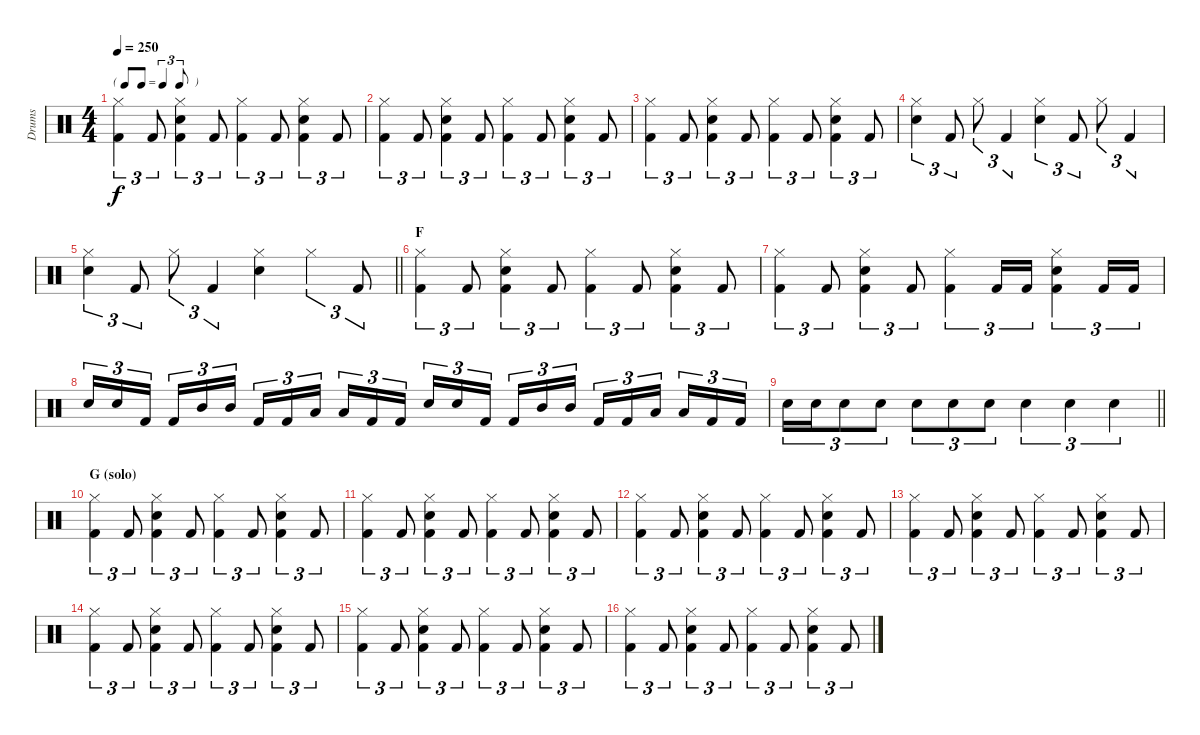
\track ("Drums" "Drums") {instrument percussion}
\staff {score}
\articulation defaults
\ts (4 4)
\tf triplet8th
\tempo 250
\clef neutral
\ks aminor
("Hi-Hat (closed)" "Kick (hit) 2").4{tu (3 2) dy f} "Kick (hit) 2".8{tu (3 2)} ("Hi-Hat (closed)" "Electric Snare (hit)" "Kick (hit) 2").4{tu (3 2)} "Kick (hit) 2".8{tu (3 2)} ("Hi-Hat (closed)" "Kick (hit) 2").4{tu (3 2)} "Kick (hit) 2".8{tu (3 2)} ("Hi-Hat (closed)" "Electric Snare (hit)" "Kick (hit) 2").4{tu (3 2)} "Kick (hit) 2".8{tu (3 2)} |
("Hi-Hat (closed)" "Kick (hit) 2").4{tu (3 2)} "Kick (hit) 2".8{tu (3 2)} ("Hi-Hat (closed)" "Electric Snare (hit)" "Kick (hit) 2").4{tu (3 2)} "Kick (hit) 2".8{tu (3 2)} ("Hi-Hat (closed)" "Kick (hit) 2").4{tu (3 2)} "Kick (hit) 2".8{tu (3 2)} ("Hi-Hat (closed)" "Electric Snare (hit)" "Kick (hit) 2").4{tu (3 2)} "Kick (hit) 2".8{tu (3 2)} |
("Hi-Hat (closed)" "Kick (hit) 2").4{tu (3 2)} "Kick (hit) 2".8{tu (3 2)} ("Hi-Hat (closed)" "Electric Snare (hit)" "Kick (hit) 2").4{tu (3 2)} "Kick (hit) 2".8{tu (3 2)} ("Hi-Hat (closed)" "Kick (hit) 2").4{tu (3 2)} "Kick (hit) 2".8{tu (3 2)} ("Hi-Hat (closed)" "Electric Snare (hit)" "Kick (hit) 2").4{tu (3 2)} "Kick (hit) 2".8{tu (3 2)} |
("Hi-Hat (closed)" "Electric Snare (hit)").4{tu (3 2)} "Kick (hit) 2".8{tu (3 2)} "Hi-Hat (closed)".8{tu (3 2)} "Kick (hit) 2".4{tu (3 2)} ("Hi-Hat (closed)" "Electric Snare (hit)").4{tu (3 2)} "Kick (hit) 2".8{tu (3 2)} "Hi-Hat (closed)".8{tu (3 2)} "Kick (hit) 2".4{tu (3 2)} |
\barLineRight lightlight
("Hi-Hat (closed)" "Electric Snare (hit)").4{tu (3 2)} "Kick (hit) 2".8{tu (3 2)} "Hi-Hat (closed)".8{tu (3 2)} "Kick (hit) 2".4{tu (3 2)} ("Hi-Hat (closed)" "Electric Snare (hit)").4 "Hi-Hat (closed)".4{tu (3 2)} "Kick (hit) 2".8{tu (3 2)} |
\section ("" "F")
("Hi-Hat (closed)" "Kick (hit) 2").4{tu (3 2)} "Kick (hit) 2".8{tu (3 2)} ("Hi-Hat (closed)" "Electric Snare (hit)" "Kick (hit) 2").4{tu (3 2)} "Kick (hit) 2".8{tu (3 2)} ("Hi-Hat (closed)" "Kick (hit) 2").4{tu (3 2)} "Kick (hit) 2".8{tu (3 2)} ("Hi-Hat (closed)" "Electric Snare (hit)" "Kick (hit) 2").4{tu (3 2)} "Kick (hit) 2".8{tu (3 2)} |
("Hi-Hat (closed)" "Kick (hit) 2").4{tu (3 2)} "Kick (hit) 2".8{tu (3 2)} ("Hi-Hat (closed)" "Electric Snare (hit)" "Kick (hit) 2").4{tu (3 2)} "Kick (hit) 2".8{tu (3 2)} ("Hi-Hat (closed)" "Kick (hit) 2").4{tu (3 2)} "Kick (hit) 2".16{tu (3 2)} "Kick (hit) 2".16{tu (3 2)} ("Hi-Hat (closed)" "Electric Snare (hit)" "Kick (hit) 2").4{tu (3 2)} "Kick (hit) 2".16{tu (3 2)} "Kick (hit) 2".16{tu (3 2)} |
"Electric Snare (hit)".16{tu (3 2)} "Electric Snare (hit)".16{tu (3 2)} "Kick (hit) 2".16{tu (3 2) beam splitsecondary} "Kick (hit) 2".16{tu (3 2)} "Mid Tom (hit)".16{tu (3 2)} "Mid Tom (hit)".16{tu (3 2)} "Kick (hit) 2".16{tu (3 2)} "Kick (hit) 2".16{tu (3 2)} "Low Tom (hit)".16{tu (3 2) beam splitsecondary} "Low Tom (hit)".16{tu (3 2)} "Kick (hit) 2".16{tu (3 2)} "Kick (hit) 2".16{tu (3 2)} "Electric Snare (hit)".16{tu (3 2)} "Electric Snare (hit)".16{tu (3 2)} "Kick (hit) 2".16{tu (3 2) beam splitsecondary} "Kick (hit) 2".16{tu (3 2)} "Mid Tom (hit)".16{tu (3 2)} "Mid Tom (hit)".16{tu (3 2)} "Kick (hit) 2".16{tu (3 2)} "Kick (hit) 2".16{tu (3 2)} "Low Tom (hit)".16{tu (3 2) beam splitsecondary} "Low Tom (hit)".16{tu (3 2)} "Kick (hit) 2".16{tu (3 2)} "Kick (hit) 2".16{tu (3 2)} |
\barLineRight lightlight "Electric Snare (hit)".16{tu (3 2)} "Electric Snare (hit)".16{tu (3 2)} "Electric Snare (hit)".8{tu (3 2)} "Electric Snare (hit)".8{tu (3 2)} "Electric Snare (hit)".8{tu (3 2)} "Electric Snare (hit)".8{tu (3 2)} "Electric Snare (hit)".8{tu (3 2)} "Electric Snare (hit)".4{tu (3 2)} "Electric Snare (hit)".4{tu (3 2)} "Electric Snare (hit)".4{tu (3 2)}
|
\section ("" "G (solo)")
("Hi-Hat (closed)" "Kick (hit) 2").4{tu (3 2)} "Kick (hit) 2".8{tu (3 2)} ("Hi-Hat (closed)" "Electric Snare (hit)" "Kick (hit) 2").4{tu (3 2)} "Kick (hit) 2".8{tu (3 2)} ("Hi-Hat (closed)" "Kick (hit) 2").4{tu (3 2)} "Kick (hit) 2".8{tu (3 2)} ("Hi-Hat (closed)" "Electric Snare (hit)" "Kick (hit) 2").4{tu (3 2)} "Kick (hit) 2".8{tu (3 2)} |
("Hi-Hat (closed)" "Kick (hit) 2").4{tu (3 2)} "Kick (hit) 2".8{tu (3 2)} ("Hi-Hat (closed)" "Electric Snare (hit)" "Kick (hit) 2").4{tu (3 2)} "Kick (hit) 2".8{tu (3 2)} ("Hi-Hat (closed)" "Kick (hit) 2").4{tu (3 2)} "Kick (hit) 2".8{tu (3 2)} ("Hi-Hat (closed)" "Electric Snare (hit)" "Kick (hit) 2").4{tu (3 2)} "Kick (hit) 2".8{tu (3 2)} |
("Hi-Hat (closed)" "Kick (hit) 2").4{tu (3 2)} "Kick (hit) 2".8{tu (3 2)} ("Hi-Hat (closed)" "Electric Snare (hit)" "Kick (hit) 2").4{tu (3 2)} "Kick (hit) 2".8{tu (3 2)} ("Hi-Hat (closed)" "Kick (hit) 2").4{tu (3 2)} "Kick (hit) 2".8{tu (3 2)} ("Hi-Hat (closed)" "Electric Snare (hit)" "Kick (hit) 2").4{tu (3 2)} "Kick (hit) 2".8{tu (3 2)} |
("Hi-Hat (closed)" "Kick (hit) 2").4{tu (3 2)} "Kick (hit) 2".8{tu (3 2)} ("Hi-Hat (closed)" "Electric Snare (hit)" "Kick (hit) 2").4{tu (3 2)} "Kick (hit) 2".8{tu (3 2)} ("Hi-Hat (closed)" "Kick (hit) 2").4{tu (3 2)} "Kick (hit) 2".8{tu (3 2)} ("Hi-Hat (closed)" "Electric Snare (hit)" "Kick (hit) 2").4{tu (3 2)} "Kick (hit) 2".8{tu (3 2)} |
("Hi-Hat (closed)" "Kick (hit) 2").4{tu (3 2)} "Kick (hit) 2".8{tu (3 2)} ("Hi-Hat (closed)" "Electric Snare (hit)" "Kick (hit) 2").4{tu (3 2)} "Kick (hit) 2".8{tu (3 2)} ("Hi-Hat (closed)" "Kick (hit) 2").4{tu (3 2)} "Kick (hit) 2".8{tu (3 2)} ("Hi-Hat (closed)" "Electric Snare (hit)" "Kick (hit) 2").4{tu (3 2)} "Kick (hit) 2".8{tu (3 2)} |
("Hi-Hat (closed)" "Kick (hit) 2").4{tu (3 2)} "Kick (hit) 2".8{tu (3 2)} ("Hi-Hat (closed)" "Electric Snare (hit)" "Kick (hit) 2").4{tu (3 2)} "Kick (hit) 2".8{tu (3 2)} ("Hi-Hat (closed)" "Kick (hit) 2").4{tu (3 2)} "Kick (hit) 2".8{tu (3 2)} ("Hi-Hat (closed)" "Electric Snare (hit)" "Kick (hit) 2").4{tu (3 2)} "Kick (hit) 2".8{tu (3 2)} |
("Hi-Hat (closed)" "Kick (hit) 2").4{tu (3 2)} "Kick (hit) 2".8{tu (3 2)} ("Hi-Hat (closed)" "Electric Snare (hit)" "Kick (hit) 2").4{tu (3 2)} "Kick (hit) 2".8{tu (3 2)} ("Hi-Hat (closed)" "Kick (hit) 2").4{tu (3 2)} "Kick (hit) 2".8{tu (3 2)} ("Hi-Hat (closed)" "Electric Snare (hit)" "Kick (hit) 2").4{tu (3 2)} "Kick (hit) 2".8{tu (3 2)}
